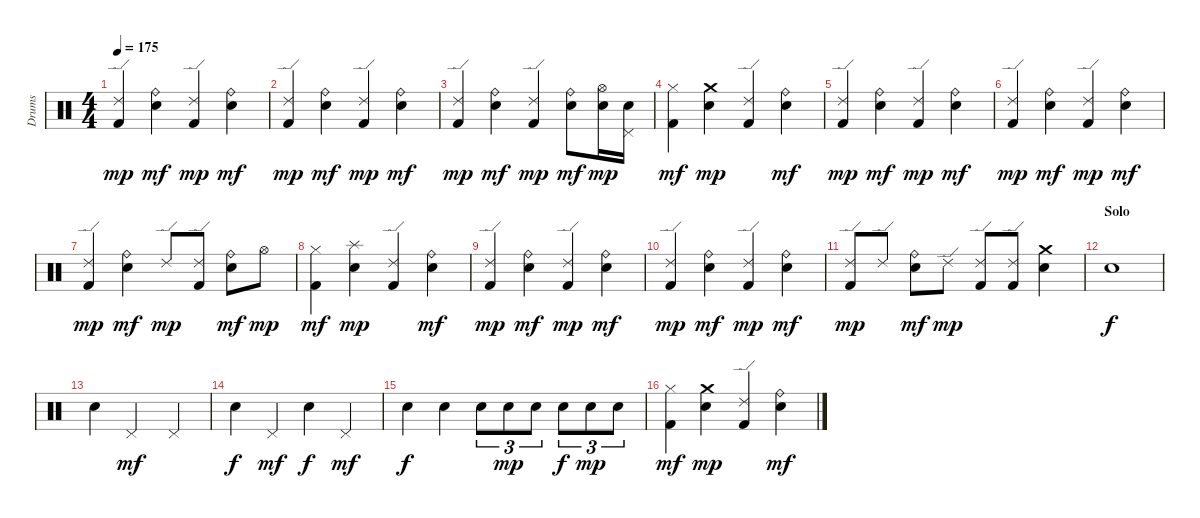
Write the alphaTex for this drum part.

\track ("Drums" "Drums") {instrument percussion}
\staff {score}
\articulation defaults
\ts (4 4)
\tempo 175
\clef neutral
\ks c
("Ride (edge) 2" "Kick (hit) 2").4{dy mp} ("Ride (bell)" "Electric Snare (hit)").4{dy mf} ("Ride (edge) 2" "Kick (hit) 2").4{dy mp} ("Ride (bell)" "Electric Snare (hit)").4{dy mf} |
("Ride (edge) 2" "Kick (hit) 2").4{dy mp} ("Ride (bell)" "Electric Snare (hit)").4{dy mf} ("Ride (edge) 2" "Kick (hit) 2").4{dy mp} ("Ride (bell)" "Electric Snare (hit)").4{dy mf} |
("Ride (edge) 2" "Kick (hit) 2").4{dy mp} ("Ride (bell)" "Electric Snare (hit)").4{dy mf} ("Ride (edge) 2" "Kick (hit) 2").4{dy mp} ("Ride (bell)" "Electric Snare (hit)").8{dy mf} ("Hi-Hat (open)" "Electric Snare (hit)").16{dy mp} ("Pedal Hi-Hat (hit)" "Electric Snare (hit)").16 |
("Hi-Hat (closed)" "Kick (hit) 2").4{dy mf} ("Crash medium (hit)" "Electric Snare (hit)").4{dy mp} ("Ride (edge) 2" "Kick (hit) 2").4 ("Ride (bell)" "Electric Snare (hit)").4{dy mf} |
("Ride (edge) 2" "Kick (hit) 2").4{dy mp} ("Ride (bell)" "Electric Snare (hit)").4{dy mf} ("Ride (edge) 2" "Kick (hit) 2").4{dy mp} ("Ride (bell)" "Electric Snare (hit)").4{dy mf} |
("Ride (edge) 2" "Kick (hit) 2").4{dy mp} ("Ride (bell)" "Electric Snare (hit)").4{dy mf} ("Ride (edge) 2" "Kick (hit) 2").4{dy mp} ("Ride (bell)" "Electric Snare (hit)").4{dy mf} |
("Ride (edge) 2" "Kick (hit) 2").4{dy mp} ("Ride (bell)" "Electric Snare (hit)").4{dy mf} "Ride (edge) 2".8{dy mp} ("Ride (edge) 2" "Kick (hit) 2").8 ("Ride (bell)" "Electric Snare (hit)").8{dy mf} "Hi-Hat (open)".8{dy mp} |
("Hi-Hat (closed)" "Kick (hit) 2").4{dy mf} ("Splash (hit)" "Electric Snare (hit)").4{dy mp} ("Ride (edge) 2" "Kick (hit) 2").4 ("Ride (bell)" "Electric Snare (hit)").4{dy mf} |
("Ride (edge) 2" "Kick (hit) 2").4{dy mp} ("Ride (bell)" "Electric Snare (hit)").4{dy mf} ("Ride (edge) 2" "Kick (hit) 2").4{dy mp} ("Ride (bell)" "Electric Snare (hit)").4{dy mf} |
("Ride (edge) 2" "Kick (hit) 2").4{dy mp} ("Ride (bell)" "Electric Snare (hit)").4{dy mf} ("Ride (edge) 2" "Kick (hit) 2").4{dy mp} ("Ride (bell)" "Electric Snare (hit)").4{dy mf} |
("Ride (edge) 2" "Kick (hit) 2").8{dy mp} "Ride (edge) 2".8 ("Ride (bell)" "Electric Snare (hit)").8{dy mf} "Ride (edge) 2".8{dy mp} ("Ride (edge) 2" "Kick (hit) 2").8 ("Ride (edge) 2" "Kick (hit) 2").8 ("Crash medium (hit)" "Electric Snare (hit)").4 |
\section ("" "Solo")
"Electric Snare (hit)".1{dy f} |
"Electric Snare (hit)".4 "Pedal Hi-Hat (hit)".2{dy mf} "Pedal Hi-Hat (hit)".4 |
"Electric Snare (hit)".4{dy f} "Pedal Hi-Hat (hit)".4{dy mf} "Electric Snare (hit)".4{dy f} "Pedal Hi-Hat (hit)".4{dy mf} |
"Electric Snare (hit)".4{dy f} "Electric Snare (hit)".4 "Electric Snare (hit)".8{tu (3 2)} "Electric Snare (hit)".8{tu (3 2) dy mp} "Electric Snare (hit)".8{tu (3 2)} "Electric Snare (hit)".8{tu (3 2) dy f} "Electric Snare (hit)".8{tu (3 2) dy mp} "Electric Snare (hit)".8{tu (3 2)} |
("Hi-Hat (closed)" "Kick (hit) 2").4{dy mf} ("Crash medium (hit)" "Electric Snare (hit)").4{dy mp} ("Ride (edge) 2" "Kick (hit) 2").4 ("Ride (bell)" "Electric Snare (hit)").4{dy mf}
